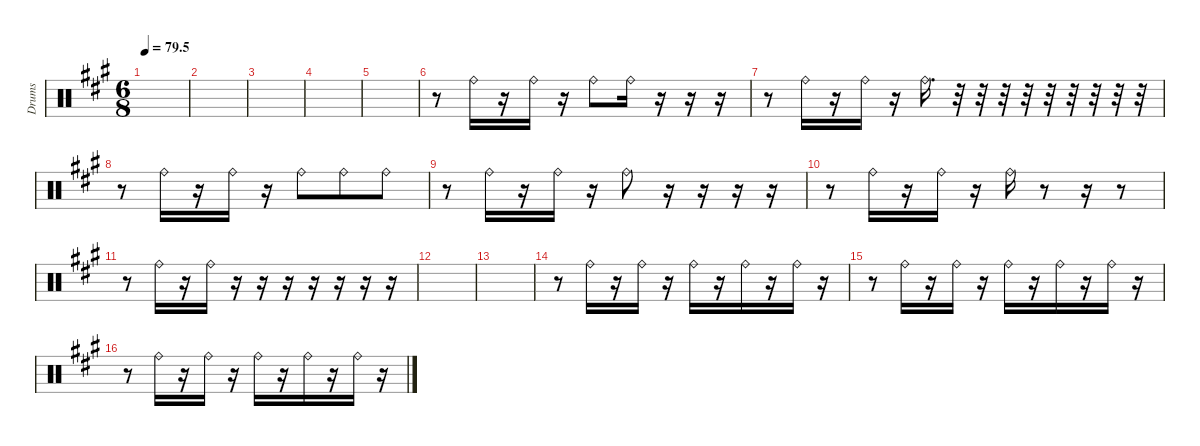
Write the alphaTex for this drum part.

\defaultSystemsLayout 4
\hideDynamics
\bracketExtendMode nobrackets
\otherSystemsTrackNameOrientation horizontal
\track ("Raid" "Drums") {instrument percussion}
\staff {score}
\articulation defaults
\ts (6 8)
\tempo
79.5
\accidentals auto
\clef neutral
\ottava regular
\simile none
\scale
0.333333
\ks a
|
\scale
0.333333 |
\scale
0.333333 |
\scale
0.333333 |
\scale
0.333333 |
\scale
0.333333 r.8 "Ride (bell)"{acc forcenatural}.16 r.16 "Ride (bell)"{acc forcenatural}.16 r.16 "Ride (bell)"{acc forcenatural}.8 "Ride (bell)"{acc forcenatural}.16 r.16 r.16 r.16 |
\scale
0.333333 r.8 "Ride (bell)"{acc forcenatural}.16 r.16 "Ride (bell)"{acc forcenatural}.16 r.16 "Ride (bell)"{acc forcenatural}.16{d} r.32 r.32 r.32 r.32 r.32 r.32 r.32 r.32 r.32 |
\scale
0.333333 r.8 "Ride (bell)"{acc forcenatural}.16 r.16 "Ride (bell)"{acc forcenatural}.16 r.16 "Ride (bell)"{acc forcenatural}.8 "Ride (bell)"{acc forcenatural}.8 "Ride (bell)"{acc forcenatural}.8 |
\scale
0.333333 r.8 "Ride (bell)"{acc forcenatural}.16 r.16 "Ride (bell)"{acc forcenatural}.16 r.16 "Ride (bell)"{acc forcenatural}.8 r.16 r.16 r.16 r.16 |
\scale
0.333333 r.8 "Ride (bell)"{acc forcenatural}.16 r.16 "Ride (bell)"{acc forcenatural}.16 r.16 "Ride (bell)"{acc forcenatural}.16 r.8 r.16 r.8 |
\scale
0.333333 r.8 "Ride (bell)"{acc forcenatural}.16 r.16 "Ride (bell)"{acc forcenatural}.16 r.16 r.16 r.16 r.16 r.16 r.16 r.16 |
\scale
0.333333 |
\scale
0.333333 |
\scale
0.333333 r.8 "Ride (bell)"{acc forcenatural}.16 r.16 "Ride (bell)"{acc forcenatural}.16 r.16 "Ride (bell)"{acc forcenatural}.16 r.16 "Ride (bell)"{acc forcenatural}.16 r.16 "Ride (bell)"{acc forcenatural}.16 r.16 |
\scale
0.333333 r.8 "Ride (bell)"{acc forcenatural}.16 r.16 "Ride (bell)"{acc forcenatural}.16 r.16 "Ride (bell)"{acc forcenatural}.16 r.16 "Ride (bell)"{acc forcenatural}.16 r.16 "Ride (bell)"{acc forcenatural}.16 r.16 |
\scale
0.333333 r.8 "Ride (bell)"{acc forcenatural}.16 r.16 "Ride (bell)"{acc forcenatural}.16 r.16 "Ride (bell)"{acc forcenatural}.16 r.16 "Ride (bell)"{acc forcenatural}.16 r.16 "Ride (bell)"{acc forcenatural}.16 r.16
